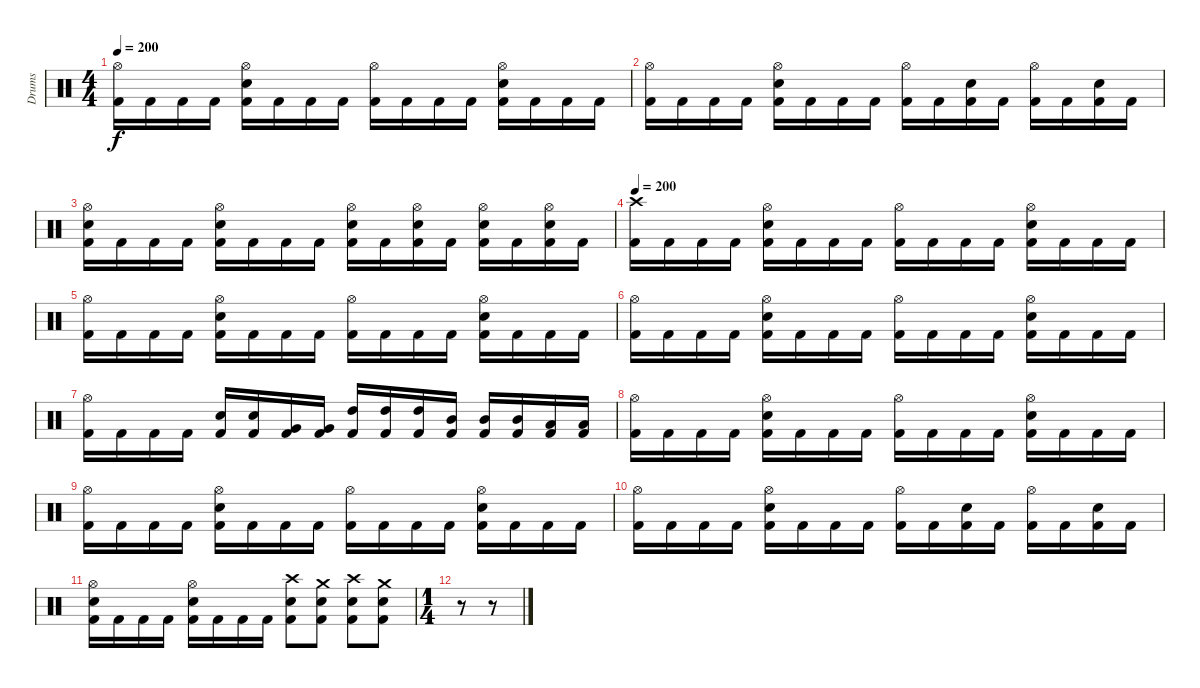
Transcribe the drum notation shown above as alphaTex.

\track ("Drums" "Drums") {instrument percussion}
\staff {score}
\articulation defaults
\ts (4 4)
\tempo 200
\clef neutral
\ks c
("Hi-Hat (open)" "Kick (hit) 2").16{dy f} "Kick (hit) 2".16 "Kick (hit) 2".16 "Kick (hit) 2".16 ("Hi-Hat (open)" "Electric Snare (hit)" "Kick (hit) 2").16 "Kick (hit) 2".16 "Kick (hit) 2".16 "Kick (hit) 2".16 ("Hi-Hat (open)" "Kick (hit) 2").16 "Kick (hit) 2".16 "Kick (hit) 2".16 "Kick (hit) 2".16 ("Hi-Hat (open)" "Electric Snare (hit)" "Kick (hit) 2").16 "Kick (hit) 2".16 "Kick (hit) 2".16 "Kick (hit) 2".16 |
("Hi-Hat (open)" "Kick (hit) 2").16 "Kick (hit) 2".16 "Kick (hit) 2".16 "Kick (hit) 2".16 ("Hi-Hat (open)" "Electric Snare (hit)" "Kick (hit) 2").16 "Kick (hit) 2".16 "Kick (hit) 2".16 "Kick (hit) 2".16 ("Hi-Hat (open)" "Kick (hit) 2").16 "Kick (hit) 2".16 ("Electric Snare (hit)" "Kick (hit) 2").16 "Kick (hit) 2".16 ("Hi-Hat (open)" "Kick (hit) 2").16 "Kick (hit) 2".16 ("Electric Snare (hit)" "Kick (hit) 2").16 "Kick (hit) 2".16 |
("Hi-Hat (open)" "Electric Snare (hit)" "Kick (hit) 2").16 "Kick (hit) 2".16 "Kick (hit) 2".16 "Kick (hit) 2".16 ("Hi-Hat (open)" "Electric Snare (hit)" "Kick (hit) 2").16 "Kick (hit) 2".16 "Kick (hit) 2".16 "Kick (hit) 2".16 ("Hi-Hat (open)" "Electric Snare (hit)" "Kick (hit) 2").16 "Kick (hit) 2".16 ("Hi-Hat (open)" "Electric Snare (hit)" "Kick (hit) 2").16 "Kick (hit) 2".16 ("Hi-Hat (open)" "Electric Snare (hit)" "Kick (hit) 2").16 "Kick (hit) 2".16 ("Hi-Hat (open)" "Electric Snare (hit)" "Kick (hit) 2").16 "Kick (hit) 2".16 |
\tempo 200
("Crash high (hit)" "Kick (hit) 2").16 "Kick (hit) 2".16 "Kick (hit) 2".16 "Kick (hit) 2".16 ("Hi-Hat (open)" "Electric Snare (hit)" "Kick (hit) 2").16 "Kick (hit) 2".16 "Kick (hit) 2".16 "Kick (hit) 2".16 ("Hi-Hat (open)" "Kick (hit) 2").16 "Kick (hit) 2".16 "Kick (hit) 2".16 "Kick (hit) 2".16 ("Hi-Hat (open)" "Electric Snare (hit)" "Kick (hit) 2").16 "Kick (hit) 2".16 "Kick (hit) 2".16 "Kick (hit) 2".16 |
("Hi-Hat (open)" "Kick (hit) 2").16 "Kick (hit) 2".16 "Kick (hit) 2".16 "Kick (hit) 2".16 ("Hi-Hat (open)" "Electric Snare (hit)" "Kick (hit) 2").16 "Kick (hit) 2".16 "Kick (hit) 2".16 "Kick (hit) 2".16 ("Hi-Hat (open)" "Kick (hit) 2").16 "Kick (hit) 2".16 "Kick (hit) 2".16 "Kick (hit) 2".16 ("Hi-Hat (open)" "Electric Snare (hit)" "Kick (hit) 2").16 "Kick (hit) 2".16 "Kick (hit) 2".16 "Kick (hit) 2".16 |
("Hi-Hat (open)" "Kick (hit) 2").16 "Kick (hit) 2".16 "Kick (hit) 2".16 "Kick (hit) 2".16 ("Hi-Hat (open)" "Electric Snare (hit)" "Kick (hit) 2").16 "Kick (hit) 2".16 "Kick (hit) 2".16 "Kick (hit) 2".16 ("Hi-Hat (open)" "Kick (hit) 2").16 "Kick (hit) 2".16 "Kick (hit) 2".16 "Kick (hit) 2".16 ("Hi-Hat (open)" "Electric Snare (hit)" "Kick (hit) 2").16 "Kick (hit) 2".16 "Kick (hit) 2".16 "Kick (hit) 2".16 |
("Hi-Hat (open)" "Kick (hit) 2").16 "Kick (hit) 2".16 "Kick (hit) 2".16 "Kick (hit) 2".16 ("Electric Snare (hit)" "Kick (hit) 2").16 ("Electric Snare (hit)" "Kick (hit) 2").16 ("Very Low Tom (hit)" "Kick (hit) 2").16 ("Very Low Tom (hit)" "Kick (hit) 2").16 ("High Tom (hit)" "Kick (hit) 2").16 ("High Tom (hit)" "Kick (hit) 2").16 ("High Tom (hit)" "Kick (hit) 2").16 ("Mid Tom (hit)" "Kick (hit) 2").16 ("Mid Tom (hit)" "Kick (hit) 2").16 ("Mid Tom (hit)" "Kick (hit) 2").16 ("Low Tom (hit)" "Kick (hit) 2").16 ("Low Tom (hit)" "Kick (hit) 2").16 |
("Hi-Hat (open)" "Kick (hit) 2").16 "Kick (hit) 2".16 "Kick (hit) 2".16 "Kick (hit) 2".16 ("Hi-Hat (open)" "Electric Snare (hit)" "Kick (hit) 2").16 "Kick (hit) 2".16 "Kick (hit) 2".16 "Kick (hit) 2".16 ("Hi-Hat (open)" "Kick (hit) 2").16 "Kick (hit) 2".16 "Kick (hit) 2".16 "Kick (hit) 2".16 ("Hi-Hat (open)" "Electric Snare (hit)" "Kick (hit) 2").16 "Kick (hit) 2".16 "Kick (hit) 2".16 "Kick (hit) 2".16 |
("Hi-Hat (open)" "Kick (hit) 2").16 "Kick (hit) 2".16 "Kick (hit) 2".16 "Kick (hit) 2".16 ("Hi-Hat (open)" "Electric Snare (hit)" "Kick (hit) 2").16 "Kick (hit) 2".16 "Kick (hit) 2".16 "Kick (hit) 2".16 ("Hi-Hat (open)" "Kick (hit) 2").16 "Kick (hit) 2".16 "Kick (hit) 2".16 "Kick (hit) 2".16 ("Hi-Hat (open)" "Electric Snare (hit)" "Kick (hit) 2").16 "Kick (hit) 2".16 "Kick (hit) 2".16 "Kick (hit) 2".16 |
("Hi-Hat (open)" "Kick (hit) 2").16 "Kick (hit) 2".16 "Kick (hit) 2".16 "Kick (hit) 2".16 ("Hi-Hat (open)" "Electric Snare (hit)" "Kick (hit) 2").16 "Kick (hit) 2".16 "Kick (hit) 2".16 "Kick (hit) 2".16 ("Hi-Hat (open)" "Kick (hit) 2").16 "Kick (hit) 2".16 ("Electric Snare (hit)" "Kick (hit) 2").16 "Kick (hit) 2".16 ("Hi-Hat (open)" "Kick (hit) 2").16 "Kick (hit) 2".16 ("Electric Snare (hit)" "Kick (hit) 2").16 "Kick (hit) 2".16 |
("Hi-Hat (open)" "Electric Snare (hit)" "Kick (hit) 2").16 "Kick (hit) 2".16 "Kick (hit) 2".16 "Kick (hit) 2".16 ("Hi-Hat (open)" "Electric Snare (hit)" "Kick (hit) 2").16 "Kick (hit) 2".16 "Kick (hit) 2".16 "Kick (hit) 2".16 ("Crash high (hit)" "Electric Snare (hit)" "Kick (hit) 2").8 ("Crash medium (hit)" "Electric Snare (hit)" "Kick (hit) 2").8 ("Crash high (hit)" "Electric Snare (hit)" "Kick (hit) 2").8 ("Crash medium (hit)" "Electric Snare (hit)" "Kick (hit) 2").8 |
\ts (1 4)
r.8 r.8{volume 0}
